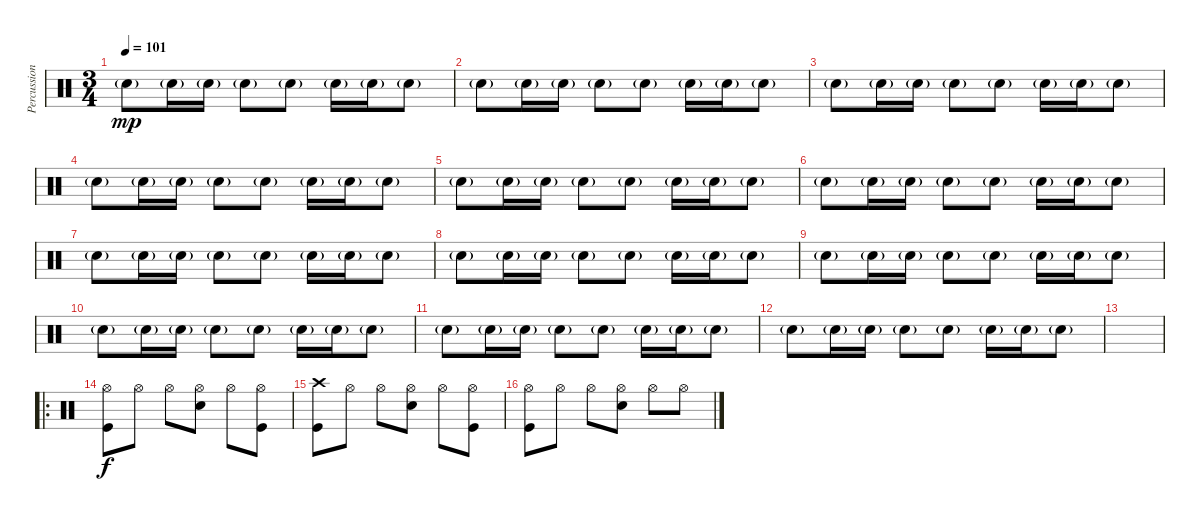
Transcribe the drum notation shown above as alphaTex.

\track ("Percussion" "Percussion") {instrument percussion}
\staff {score}
\articulation defaults
\ts (3 4)
\tempo 101
\clef neutral
\ks c "Snare (hit) 2"{g}.8{dy mp} "Snare (hit) 2"{g}.16 "Snare (hit) 2"{g}.16 "Snare (hit) 2"{g}.8 "Snare (hit) 2"{g}.8 "Snare (hit) 2"{g}.16 "Snare (hit) 2"{g}.16 "Snare (hit) 2"{g}.8
|
"Snare (hit) 2"{g}.8 "Snare (hit) 2"{g}.16 "Snare (hit) 2"{g}.16 "Snare (hit) 2"{g}.8 "Snare (hit) 2"{g}.8 "Snare (hit) 2"{g}.16 "Snare (hit) 2"{g}.16 "Snare (hit) 2"{g}.8 |
"Snare (hit) 2"{g}.8 "Snare (hit) 2"{g}.16 "Snare (hit) 2"{g}.16 "Snare (hit) 2"{g}.8 "Snare (hit) 2"{g}.8 "Snare (hit) 2"{g}.16 "Snare (hit) 2"{g}.16 "Snare (hit) 2"{g}.8 |
"Snare (hit) 2"{g}.8 "Snare (hit) 2"{g}.16 "Snare (hit) 2"{g}.16 "Snare (hit) 2"{g}.8 "Snare (hit) 2"{g}.8 "Snare (hit) 2"{g}.16 "Snare (hit) 2"{g}.16 "Snare (hit) 2"{g}.8 |
"Snare (hit) 2"{g}.8 "Snare (hit) 2"{g}.16 "Snare (hit) 2"{g}.16 "Snare (hit) 2"{g}.8 "Snare (hit) 2"{g}.8 "Snare (hit) 2"{g}.16 "Snare (hit) 2"{g}.16 "Snare (hit) 2"{g}.8 |
"Snare (hit) 2"{g}.8 "Snare (hit) 2"{g}.16 "Snare (hit) 2"{g}.16 "Snare (hit) 2"{g}.8 "Snare (hit) 2"{g}.8 "Snare (hit) 2"{g}.16 "Snare (hit) 2"{g}.16 "Snare (hit) 2"{g}.8 |
"Snare (hit) 2"{g}.8 "Snare (hit) 2"{g}.16 "Snare (hit) 2"{g}.16 "Snare (hit) 2"{g}.8 "Snare (hit) 2"{g}.8 "Snare (hit) 2"{g}.16 "Snare (hit) 2"{g}.16 "Snare (hit) 2"{g}.8 |
"Snare (hit) 2"{g}.8 "Snare (hit) 2"{g}.16 "Snare (hit) 2"{g}.16 "Snare (hit) 2"{g}.8 "Snare (hit) 2"{g}.8 "Snare (hit) 2"{g}.16 "Snare (hit) 2"{g}.16 "Snare (hit) 2"{g}.8 |
"Snare (hit) 2"{g}.8 "Snare (hit) 2"{g}.16 "Snare (hit) 2"{g}.16 "Snare (hit) 2"{g}.8 "Snare (hit) 2"{g}.8 "Snare (hit) 2"{g}.16 "Snare (hit) 2"{g}.16 "Snare (hit) 2"{g}.8 |
"Snare (hit) 2"{g}.8 "Snare (hit) 2"{g}.16 "Snare (hit) 2"{g}.16 "Snare (hit) 2"{g}.8 "Snare (hit) 2"{g}.8 "Snare (hit) 2"{g}.16 "Snare (hit) 2"{g}.16 "Snare (hit) 2"{g}.8 |
"Snare (hit) 2"{g}.8 "Snare (hit) 2"{g}.16 "Snare (hit) 2"{g}.16 "Snare (hit) 2"{g}.8 "Snare (hit) 2"{g}.8 "Snare (hit) 2"{g}.16 "Snare (hit) 2"{g}.16 "Snare (hit) 2"{g}.8 |
"Snare (hit) 2"{g}.8 "Snare (hit) 2"{g}.16 "Snare (hit) 2"{g}.16 "Snare (hit) 2"{g}.8 "Snare (hit) 2"{g}.8 "Snare (hit) 2"{g}.16 "Snare (hit) 2"{g}.16 "Snare (hit) 2"{g}.8 |
|
\ro
("Hi-Hat (open)" "Kick (hit)").8{dy f} "Hi-Hat (open)".8 "Hi-Hat (open)".8 ("Hi-Hat (open)" "Snare (hit) 2").8 "Hi-Hat (open)".8 ("Hi-Hat (open)" "Kick (hit)").8 |
("Crash high (hit)" "Kick (hit)").8 "Hi-Hat (open)".8 "Hi-Hat (open)".8 ("Hi-Hat (open)" "Snare (hit) 2").8 "Hi-Hat (open)".8 ("Hi-Hat (open)" "Kick (hit)").8 |
("Hi-Hat (open)" "Kick (hit)").8 "Hi-Hat (open)".8 "Hi-Hat (open)".8 ("Hi-Hat (open)" "Snare (hit) 2").8 "Hi-Hat (open)".8 "Hi-Hat (open)".8
